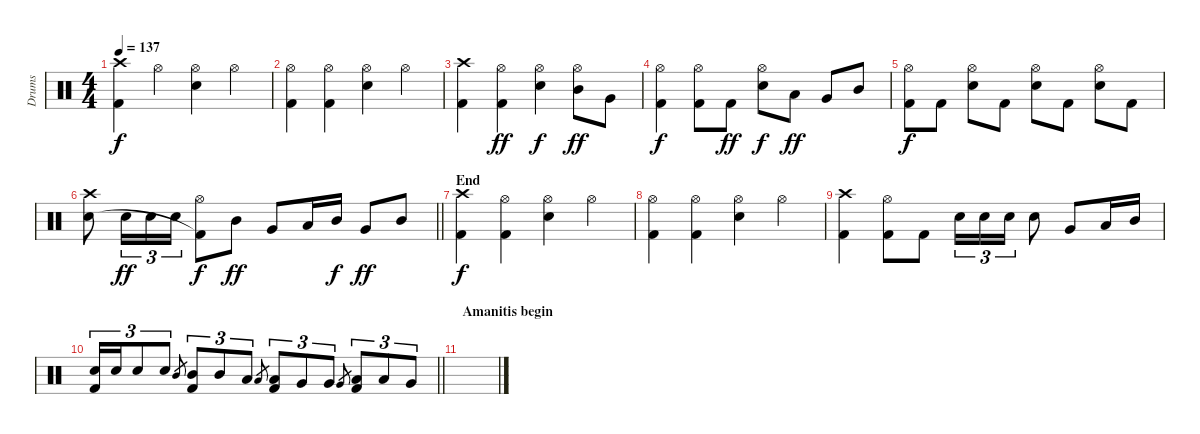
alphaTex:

\track ("Drums" "Drums") {instrument percussion}
\staff {score}
\articulation defaults
\ts (4 4)
\tempo 137
\clef neutral
\ks c
("Crash high (hit)" "Kick (hit) 2").4{dy f} "Hi-Hat (open)".4 ("Hi-Hat (open)" "Snare (hit) 2").4 "Hi-Hat (open)".4 |
("Hi-Hat (open)" "Kick (hit) 2").4 ("Hi-Hat (open)" "Kick (hit) 2").4 ("Hi-Hat (open)" "Snare (hit) 2").4 "Hi-Hat (open)".4 |
("Crash high (hit)" "Kick (hit) 2").4 ("Hi-Hat (open)" "Kick (hit) 2").4{dy ff} ("Hi-Hat (open)" "Snare (hit) 2").4{dy f} ("Hi-Hat (open)" "Mid Tom (hit)").8{dy ff} "Very Low Tom (hit)".8 |
("Hi-Hat (open)" "Kick (hit) 2").4{dy f} ("Hi-Hat (open)" "Kick (hit) 2").8 "Kick (hit) 2".8{dy ff} ("Hi-Hat (open)" "Snare (hit) 2").8{dy f} "Low Tom (hit)".8{dy ff} "Very Low Tom (hit)".8 "Mid Tom (hit)".8 |
("Hi-Hat (open)" "Kick (hit) 2").8{dy f} "Kick (hit) 2".8 ("Hi-Hat (open)" "Snare (hit) 2").8 "Kick (hit) 2".8 ("Hi-Hat (open)" "Snare (hit) 2").8 "Kick (hit) 2".8 ("Hi-Hat (open)" "Snare (hit) 2").8 "Kick (hit) 2".8 |
\barLineRight lightlight
("Crash high (hit)" "Snare (hit) 2").8 "Snare (hit) 2".16{tu (3 2) dy ff} "Snare (hit) 2".16{tu (3 2)} "Snare (hit) 2".16{tu (3 2)} ("Hi-Hat (open)" "Kick (hit) 2"{t}).8{dy f} "Mid Tom (hit)".8{dy ff} "Very Low Tom (hit)".8 "Low Tom (hit)".16 "Mid Tom (hit)".16{dy f} "Very Low Tom (hit)".8{dy ff} "Mid Tom (hit)".8 |
\section ("" "End")
("Crash high (hit)" "Kick (hit) 2").4{dy f} ("Hi-Hat (open)" "Kick (hit) 2").4 ("Hi-Hat (open)" "Snare (hit) 2").4 "Hi-Hat (open)".4 |
("Hi-Hat (open)" "Kick (hit) 2").4 ("Hi-Hat (open)" "Kick (hit) 2").4 ("Hi-Hat (open)" "Snare (hit) 2").4 "Hi-Hat (open)".4 |
("Crash high (hit)" "Kick (hit) 2").4 ("Hi-Hat (open)" "Kick (hit) 2").8 "Kick (hit) 2".8 "Snare (hit) 2".16{tu (3 2)} "Snare (hit) 2".16{tu (3 2)} "Snare (hit) 2".16{tu (3 2)} "Snare (hit) 2".8 "Very Low Tom (hit)".8 "Low Tom (hit)".16 "Mid Tom (hit)".16 |
\barLineRight lightlight
("Snare (hit) 2" "Kick (hit) 2").16{tu (3 2)} "Snare (hit) 2".16{tu (3 2)} "Snare (hit) 2".8{tu (3 2)} "Snare (hit) 2".8{tu (3 2)} "Mid Tom (hit)".8{gr} ("Mid Tom (hit)" "Kick (hit) 2").8{tu (3 2)} "Mid Tom (hit)".8{tu (3 2)} "Low Tom (hit)".8{tu (3 2)} "Low Tom (hit)".8{gr} ("Low Tom (hit)" "Kick (hit) 2").8{tu (3 2)} "Very Low Tom (hit)".8{tu (3 2)} "Very Low Tom (hit)".8{tu (3 2)} "Very Low Tom (hit)".8{gr} ("Low Tom (hit)" "Kick (hit) 2").8{tu (3 2)} "Low Tom (hit)".8{tu (3 2)} "Very Low Tom (hit)".8{tu (3 2)} |
\section ("" "Amanitis begin")
